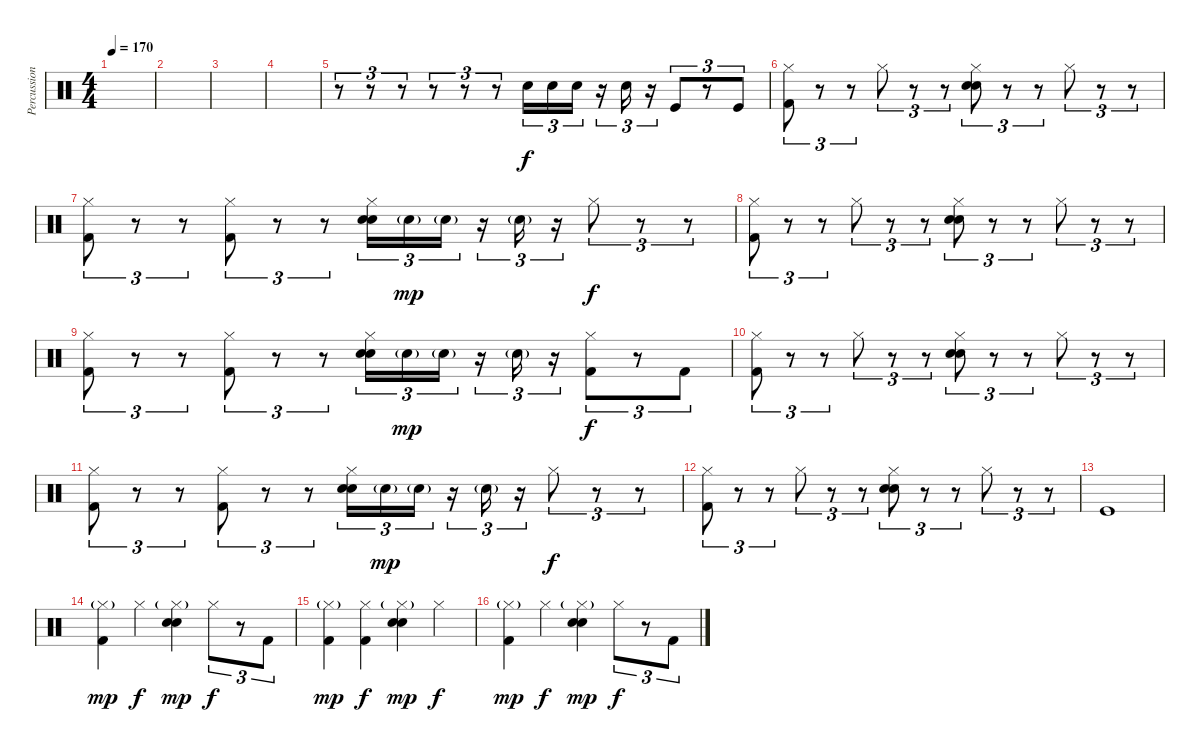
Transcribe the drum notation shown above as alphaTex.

\track ("Percussion" "Percussion") {instrument percussion}
\staff {score}
\articulation defaults
\ts (4 4)
\tempo 170
\clef neutral
\ks c
|
|
|
|
r.8{tu (3 2)} r.8{tu (3 2)} r.8{tu (3 2)} r.8{tu (3 2)} r.8{tu (3 2)} r.8{tu (3 2)} "Electric Snare (hit)".16{tu (3 2)} "Electric Snare (hit)".16{tu (3 2)} "Electric Snare (hit)".16{tu (3 2)} r.16{tu (3 2)} "Electric Snare (hit)".16{tu (3 2)} r.16{tu (3 2)} "Kick (hit)".8{tu (3 2)} r.8{tu (3 2)} "Kick (hit)".8{tu (3 2)} |
("Hi-Hat (closed)" "Kick (hit) 2").8{tu (3 2)} r.8{tu (3 2)} r.8{tu (3 2)} "Hi-Hat (closed)".8{tu (3 2)} r.8{tu (3 2)} r.8{tu (3 2)} ("Hi-Hat (closed)" "Hand Clap (hit)" "Electric Snare (hit)").8{tu (3 2)} r.8{tu (3 2)} r.8{tu (3 2)} "Hi-Hat (closed)".8{tu (3 2)} r.8{tu (3 2)} r.8{tu (3 2)} |
("Hi-Hat (closed)" "Kick (hit) 2").8{tu (3 2)} r.8{tu (3 2)} r.8{tu (3 2)} ("Hi-Hat (closed)" "Kick (hit) 2").8{tu (3 2)} r.8{tu (3 2)} r.8{tu (3 2)} ("Hi-Hat (closed)" "Hand Clap (hit)" "Electric Snare (hit)").16{tu (3 2)} "Electric Snare (hit)"{g}.16{tu (3 2) dy mp} "Electric Snare (hit)"{g}.16{tu (3 2)} r.16{tu (3 2)} "Electric Snare (hit)"{g}.16{tu (3 2)} r.16{tu (3 2)} "Hi-Hat (closed)".8{tu (3 2) dy f} r.8{tu (3 2)} r.8{tu (3 2)} |
("Hi-Hat (closed)" "Kick (hit) 2").8{tu (3 2)} r.8{tu (3 2)} r.8{tu (3 2)} "Hi-Hat (closed)".8{tu (3 2)} r.8{tu (3 2)} r.8{tu (3 2)} ("Hi-Hat (closed)" "Hand Clap (hit)" "Electric Snare (hit)").8{tu (3 2)} r.8{tu (3 2)} r.8{tu (3 2)} "Hi-Hat (closed)".8{tu (3 2)} r.8{tu (3 2)} r.8{tu (3 2)} |
("Hi-Hat (closed)" "Kick (hit) 2").8{tu (3 2)} r.8{tu (3 2)} r.8{tu (3 2)} ("Hi-Hat (closed)" "Kick (hit) 2").8{tu (3 2)} r.8{tu (3 2)} r.8{tu (3 2)} ("Hi-Hat (closed)" "Hand Clap (hit)" "Electric Snare (hit)").16{tu (3 2)} "Electric Snare (hit)"{g}.16{tu (3 2) dy mp} "Electric Snare (hit)"{g}.16{tu (3 2)} r.16{tu (3 2)} "Electric Snare (hit)"{g}.16{tu (3 2)} r.16{tu (3 2)} ("Hi-Hat (closed)" "Kick (hit) 2").8{tu (3 2) dy f} r.8{tu (3 2)} "Kick (hit) 2".8{tu (3 2)} |
("Hi-Hat (closed)" "Kick (hit) 2").8{tu (3 2)} r.8{tu (3 2)} r.8{tu (3 2)} "Hi-Hat (closed)".8{tu (3 2)} r.8{tu (3 2)} r.8{tu (3 2)} ("Hi-Hat (closed)" "Hand Clap (hit)" "Electric Snare (hit)").8{tu (3 2)} r.8{tu (3 2)} r.8{tu (3 2)} "Hi-Hat (closed)".8{tu (3 2)} r.8{tu (3 2)} r.8{tu (3 2)} |
("Hi-Hat (closed)" "Kick (hit) 2").8{tu (3 2)} r.8{tu (3 2)} r.8{tu (3 2)} ("Hi-Hat (closed)" "Kick (hit) 2").8{tu (3 2)} r.8{tu (3 2)} r.8{tu (3 2)} ("Hi-Hat (closed)" "Hand Clap (hit)" "Electric Snare (hit)").16{tu (3 2)} "Electric Snare (hit)"{g}.16{tu (3 2) dy mp} "Electric Snare (hit)"{g}.16{tu (3 2)} r.16{tu (3 2)} "Electric Snare (hit)"{g}.16{tu (3 2)} r.16{tu (3 2)} "Hi-Hat (closed)".8{tu (3 2) dy f} r.8{tu (3 2)} r.8{tu (3 2)} |
("Hi-Hat (closed)" "Kick (hit) 2").8{tu (3 2)} r.8{tu (3 2)} r.8{tu (3 2)} "Hi-Hat (closed)".8{tu (3 2)} r.8{tu (3 2)} r.8{tu (3 2)} ("Hi-Hat (closed)" "Hand Clap (hit)" "Electric Snare (hit)").8{tu (3 2)} r.8{tu (3 2)} r.8{tu (3 2)} "Hi-Hat (closed)".8{tu (3 2)} r.8{tu (3 2)} r.8{tu (3 2)} |
"Kick (hit)".1 |
("Hi-Hat (closed)"{g} "Kick (hit) 2").4{dy mp} "Hi-Hat (closed)".4{dy f} ("Hi-Hat (closed)"{g} "Hand Clap (hit)" "Electric Snare (hit)").4{dy mp} "Hi-Hat (closed)".8{tu (3 2) dy f} r.8{tu (3 2)} "Kick (hit) 2".8{tu (3 2)} |
("Hi-Hat (closed)"{g} "Kick (hit) 2").4{dy mp} ("Hi-Hat (closed)" "Kick (hit) 2").4{dy f} ("Hi-Hat (closed)"{g} "Hand Clap (hit)" "Electric Snare (hit)").4{dy mp} "Hi-Hat (closed)".4{dy f} |
("Hi-Hat (closed)"{g} "Kick (hit) 2").4{dy mp} "Hi-Hat (closed)".4{dy f} ("Hi-Hat (closed)"{g} "Hand Clap (hit)" "Electric Snare (hit)").4{dy mp} "Hi-Hat (closed)".8{tu (3 2) dy f} r.8{tu (3 2)} "Kick (hit) 2".8{tu (3 2)}
